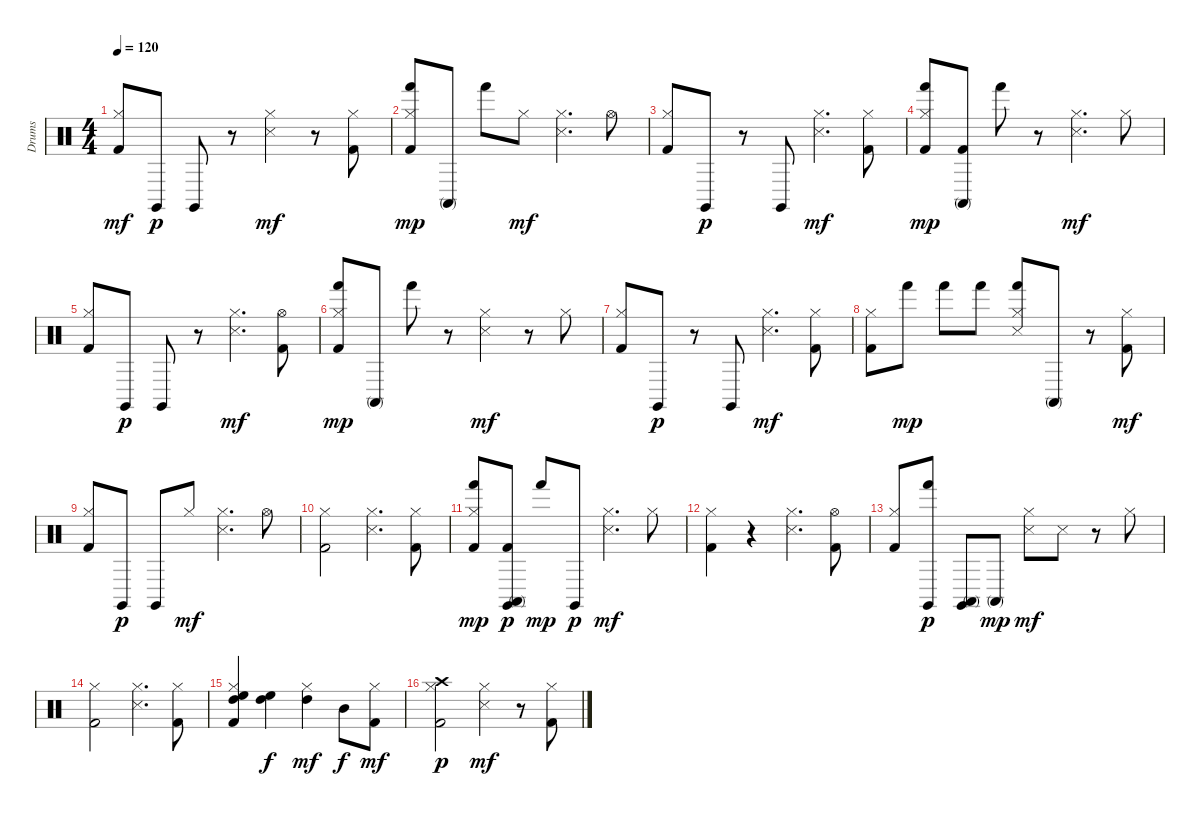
\track ("Drums" "Drums") {instrument percussion}
\staff {score}
\articulation defaults
\ts (4 4)
\tempo 120
\clef neutral
\ks c
("Kick (hit) 2" "Hi-Hat (closed)").8{dy mf} "Claves (hit)".8{dy p} "Claves (hit)".8 r.8 ("Hi-Hat (closed)" "Snare (side stick) 3").4{dy mf} r.8 ("Kick (hit) 2" "Hi-Hat (closed)").8 |
("Kick (hit) 2" "Hi-Hat (closed)" "Hand (hit)").8{dy mp} "Conga high (mute)".8 "Hand (hit)".8 "Hi-Hat (closed)".8{dy mf} ("Hi-Hat (closed)" "Snare (side stick) 3").4{d} "Hi-Hat (open)".8 |
("Kick (hit) 2" "Hi-Hat (closed)").8 "Claves (hit)".8{dy p} r.8 "Claves (hit)".8 ("Hi-Hat (closed)" "Snare (side stick) 3").4{d dy mf} ("Kick (hit) 2" "Hi-Hat (closed)").8 |
("Kick (hit) 2" "Hi-Hat (closed)" "Hand (hit)").8{dy mp} ("Kick (hit) 2" "Conga high (mute)").8 "Hand (hit)".8 r.8 ("Hi-Hat (closed)" "Snare (side stick) 3").4{d dy mf} "Hi-Hat (closed)".8 |
("Kick (hit) 2" "Hi-Hat (closed)").8 "Claves (hit)".8{dy p} "Claves (hit)".8 r.8 ("Hi-Hat (closed)" "Snare (side stick) 3").4{d dy mf} ("Kick (hit) 2" "Hi-Hat (open)").8 |
("Kick (hit) 2" "Hi-Hat (closed)" "Hand (hit)").8{dy mp} "Conga high (mute)".8 "Hand (hit)".8 r.8 ("Hi-Hat (closed)" "Snare (side stick) 3").4{dy mf} r.8 "Hi-Hat (closed)".8 |
("Kick (hit) 2" "Hi-Hat (closed)").8 "Claves (hit)".8{dy p} r.8 "Claves (hit)".8 ("Hi-Hat (closed)" "Snare (side stick) 3").4{d dy mf} ("Kick (hit) 2" "Hi-Hat (closed)").8 |
("Kick (hit) 2" "Hi-Hat (closed)").8 "Hand (hit)".8{dy mp} "Hand (hit)".8 "Hand (hit)".8 ("Hi-Hat (closed)" "Snare (side stick) 3" "Hand (hit)").8 "Conga high (mute)".8 r.8 ("Kick (hit) 2" "Hi-Hat (closed)").8{dy mf} |
("Kick (hit) 2" "Hi-Hat (closed)").8 "Claves (hit)".8{dy p} "Claves (hit)".8 "Hi-Hat (closed)".8{dy mf} ("Hi-Hat (closed)" "Snare (side stick) 3").4{d} "Hi-Hat (open)".8 |
("Kick (hit) 2" "Hi-Hat (closed)").2 ("Hi-Hat (closed)" "Snare (side stick) 3").4{d} ("Kick (hit) 2" "Hi-Hat (closed)").8 |
("Kick (hit) 2" "Hi-Hat (closed)" "Hand (hit)").8{dy mp} ("Kick (hit) 2" "Conga high (mute)" "Claves (hit)").8{dy p} "Hand (hit)".8{dy mp} "Claves (hit)".8{dy p} ("Hi-Hat (closed)" "Snare (side stick) 3").4{d dy mf} "Hi-Hat (closed)".8 |
("Kick (hit) 2" "Hi-Hat (closed)").4 r.4 ("Hi-Hat (closed)" "Snare (side stick) 3").4{d} ("Kick (hit) 2" "Hi-Hat (open)").8 |
("Kick (hit) 2" "Hi-Hat (closed)").8 ("Hand (hit)" "Claves (hit)").8{dy p} ("Conga high (mute)" "Claves (hit)").8 "Conga high (mute)".8{dy mp} ("Hi-Hat (closed)" "Snare (side stick) 3").8{dy mf} "Snare (side stick) 3".8 r.8 "Hi-Hat (closed)".8 |
("Kick (hit) 2" "Hi-Hat (closed)").2 ("Hi-Hat (closed)" "Snare (side stick) 3").4{d} ("Kick (hit) 2" "Hi-Hat (closed)").8 |
("Kick (hit) 2" "Hi-Hat (closed)" "High Floor Tom (hit)" "High Tom (hit)").4 ("High Tom (hit)" "High Floor Tom (hit)").4{dy f} ("Hi-Hat (closed)" "High Tom (hit)").4{dy mf} "Mid Tom (hit)".8{dy f} ("Kick (hit) 2" "Hi-Hat (closed)").8{dy mf} |
("Kick (hit) 2" "Hi-Hat (closed)" "Crash high (hit)").2{dy p} ("Hi-Hat (closed)" "Snare (side stick) 3").4{dy mf} r.8 ("Kick (hit) 2" "Hi-Hat (closed)").8
